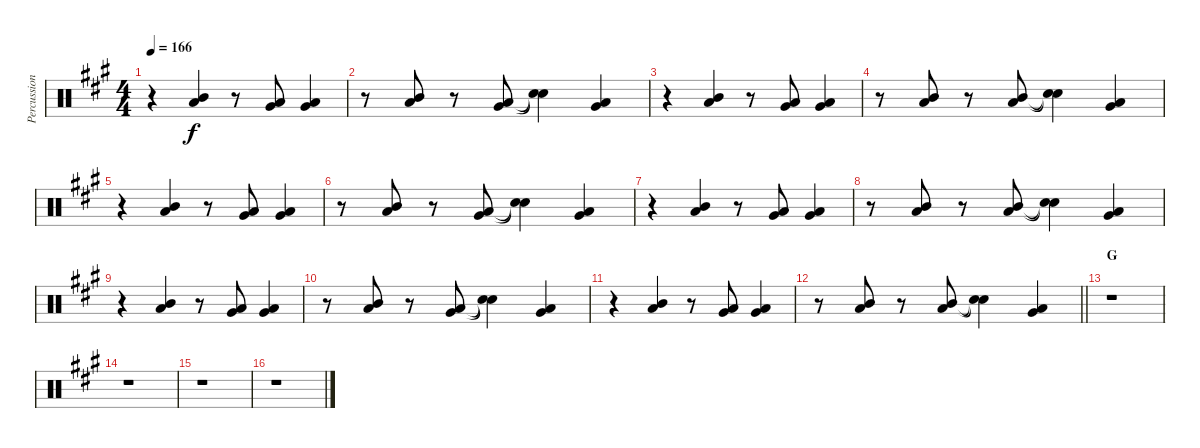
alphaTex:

\track ("Percussion II" "Percussion") {instrument percussion}
\staff {score}
\articulation defaults
\ts (4 4)
\tempo 166
\clef neutral
\ks a
r.4{dy f} ("Mid Tom (hit)" "Low Tom (hit)").4 r.8 ("Very Low Tom (hit)" "Low Tom (hit)").8 ("Very Low Tom (hit)" "Low Tom (hit)").4 |
r.8 ("Mid Tom (hit)" "Low Tom (hit)").8 r.8 ("Very Low Tom (hit)" "Low Tom (hit)").8 ("Snare (hit)"{t} "Snare (hit)"{t}).4 ("Very Low Tom (hit)" "Low Tom (hit)").4 |
r.4 ("Mid Tom (hit)" "Low Tom (hit)").4 r.8 ("Very Low Tom (hit)" "Low Tom (hit)").8 ("Very Low Tom (hit)" "Low Tom (hit)").4 |
r.8 ("Mid Tom (hit)" "Low Tom (hit)").8 r.8 ("Mid Tom (hit)" "Low Tom (hit)").8 ("Snare (hit)"{t} "Snare (hit)"{t}).4 ("Very Low Tom (hit)" "Low Tom (hit)").4 |
r.4 ("Mid Tom (hit)" "Low Tom (hit)").4 r.8 ("Very Low Tom (hit)" "Low Tom (hit)").8 ("Very Low Tom (hit)" "Low Tom (hit)").4 |
r.8 ("Mid Tom (hit)" "Low Tom (hit)").8 r.8 ("Very Low Tom (hit)" "Low Tom (hit)").8 ("Snare (hit)"{t} "Snare (hit)"{t}).4 ("Very Low Tom (hit)" "Low Tom (hit)").4 |
r.4 ("Mid Tom (hit)" "Low Tom (hit)").4 r.8 ("Very Low Tom (hit)" "Low Tom (hit)").8 ("Very Low Tom (hit)" "Low Tom (hit)").4 |
r.8 ("Mid Tom (hit)" "Low Tom (hit)").8 r.8 ("Mid Tom (hit)" "Low Tom (hit)").8 ("Snare (hit)"{t} "Snare (hit)"{t}).4 ("Very Low Tom (hit)" "Low Tom (hit)").4 |
r.4 ("Mid Tom (hit)" "Low Tom (hit)").4 r.8 ("Very Low Tom (hit)" "Low Tom (hit)").8 ("Very Low Tom (hit)" "Low Tom (hit)").4 |
r.8 ("Mid Tom (hit)" "Low Tom (hit)").8 r.8 ("Very Low Tom (hit)" "Low Tom (hit)").8 ("Snare (hit)"{t} "Snare (hit)"{t}).4 ("Very Low Tom (hit)" "Low Tom (hit)").4 |
r.4 ("Mid Tom (hit)" "Low Tom (hit)").4 r.8 ("Very Low Tom (hit)" "Low Tom (hit)").8 ("Very Low Tom (hit)" "Low Tom (hit)").4 |
\barLineRight lightlight
r.8 ("Mid Tom (hit)" "Low Tom (hit)").8 r.8 ("Mid Tom (hit)" "Low Tom (hit)").8 ("Snare (hit)"{t} "Snare (hit)"{t}).4 ("Very Low Tom (hit)" "Low Tom (hit)").4 |
\section ("" "G")
r.1 |
r.1 |
r.1 |
r.1
